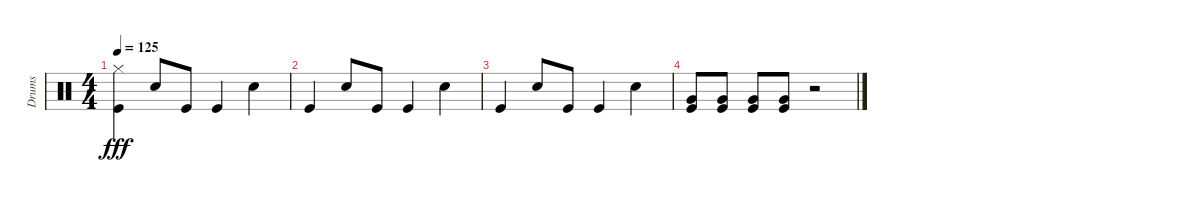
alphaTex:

\track ("Drums" "Drums") {instrument percussion}
\staff {score}
\articulation defaults
\ts (4 4)
\tempo 125
\clef neutral
\ks c
("Hi-Hat (closed)" "Kick (hit)").4{dy fff} "Snare (hit) 2".8 "Kick (hit)".8 "Kick (hit)".4 "Snare (hit) 2".4 |
"Kick (hit)".4 "Snare (hit) 2".8 "Kick (hit)".8 "Kick (hit)".4 "Snare (hit) 2".4 |
"Kick (hit)".4 "Snare (hit) 2".8 "Kick (hit)".8 "Kick (hit)".4 "Snare (hit) 2".4 |
("Very Low Tom (hit)" "Kick (hit)").8 ("Very Low Tom (hit)" "Kick (hit)").8 ("Very Low Tom (hit)" "Kick (hit)").8 ("Very Low Tom (hit)" "Kick (hit)").8 r.2
